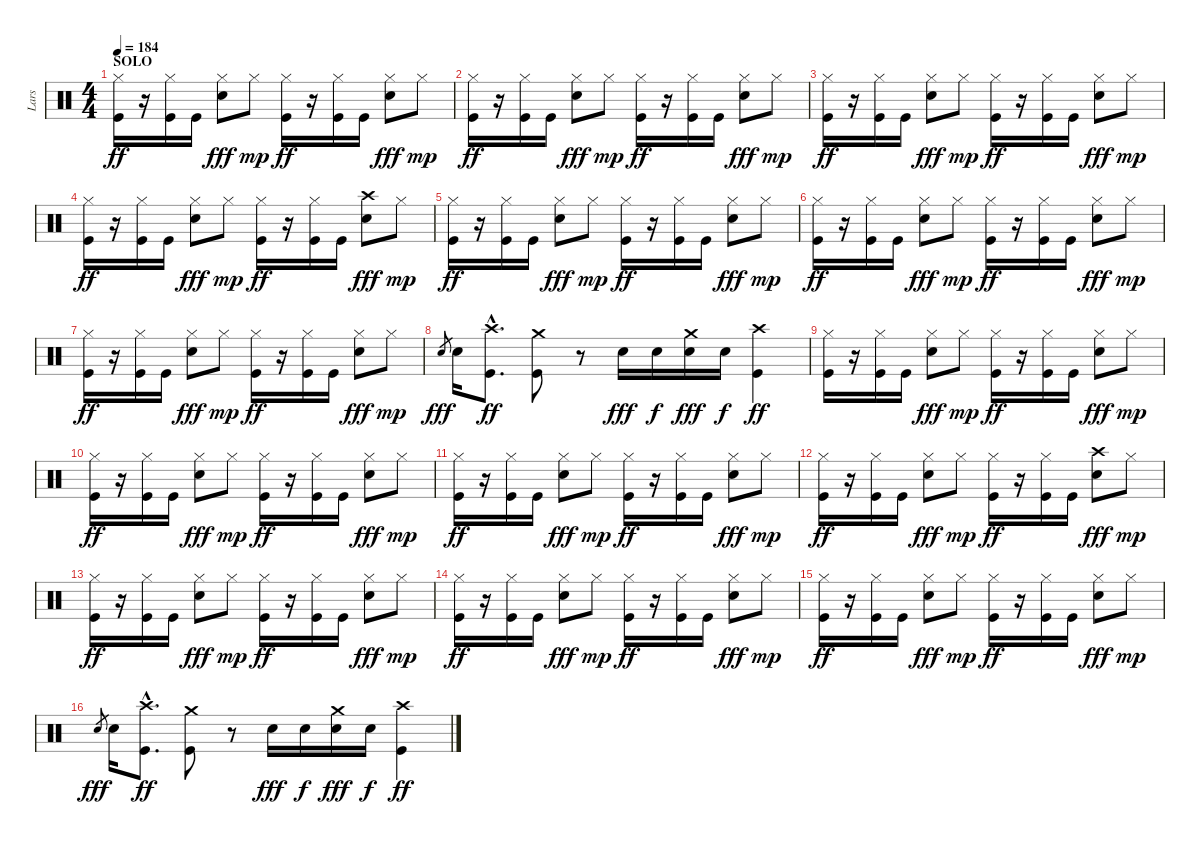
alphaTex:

\track ("Lars" "Lars") {instrument percussion}
\staff {score}
\articulation defaults
\ts (4 4)
\section ("" "SOLO")
\tempo 184
\clef neutral
\ks c
("Hi-Hat (closed)" "Kick (hit)").16{dy ff} r.16 ("Hi-Hat (closed)" "Kick (hit)").16 "Kick (hit)".16 ("Hi-Hat (closed)" "Electric Snare (hit)").8{dy fff} "Hi-Hat (closed)".8{dy mp} ("Hi-Hat (closed)" "Kick (hit)").16{dy ff} r.16 ("Hi-Hat (closed)" "Kick (hit)").16 "Kick (hit)".16 ("Hi-Hat (closed)" "Electric Snare (hit)").8{dy fff} "Hi-Hat (closed)".8{dy mp} |
("Hi-Hat (closed)" "Kick (hit)").16{dy ff} r.16 ("Hi-Hat (closed)" "Kick (hit)").16 "Kick (hit)".16 ("Hi-Hat (closed)" "Electric Snare (hit)").8{dy fff} "Hi-Hat (closed)".8{dy mp} ("Hi-Hat (closed)" "Kick (hit)").16{dy ff} r.16 ("Hi-Hat (closed)" "Kick (hit)").16 "Kick (hit)".16 ("Hi-Hat (closed)" "Electric Snare (hit)").8{dy fff} "Hi-Hat (closed)".8{dy mp} |
("Hi-Hat (closed)" "Kick (hit)").16{dy ff} r.16 ("Hi-Hat (closed)" "Kick (hit)").16 "Kick (hit)".16 ("Hi-Hat (closed)" "Electric Snare (hit)").8{dy fff} "Hi-Hat (closed)".8{dy mp} ("Hi-Hat (closed)" "Kick (hit)").16{dy ff} r.16 ("Hi-Hat (closed)" "Kick (hit)").16 "Kick (hit)".16 ("Hi-Hat (closed)" "Electric Snare (hit)").8{dy fff} "Hi-Hat (closed)".8{dy mp} |
("Hi-Hat (closed)" "Kick (hit)").16{dy ff} r.16 ("Hi-Hat (closed)" "Kick (hit)").16 "Kick (hit)".16 ("Hi-Hat (closed)" "Electric Snare (hit)").8{dy fff} "Hi-Hat (closed)".8{dy mp} ("Hi-Hat (closed)" "Kick (hit)").16{dy ff} r.16 ("Hi-Hat (closed)" "Kick (hit)").16 "Kick (hit)".16 ("Crash high (hit)" "Electric Snare (hit)").8{dy fff} "Hi-Hat (closed)".8{dy mp} |
("Hi-Hat (closed)" "Kick (hit)").16{dy ff} r.16 ("Hi-Hat (closed)" "Kick (hit)").16 "Kick (hit)".16 ("Hi-Hat (closed)" "Electric Snare (hit)").8{dy fff} "Hi-Hat (closed)".8{dy mp} ("Hi-Hat (closed)" "Kick (hit)").16{dy ff} r.16 ("Hi-Hat (closed)" "Kick (hit)").16 "Kick (hit)".16 ("Hi-Hat (closed)" "Electric Snare (hit)").8{dy fff} "Hi-Hat (closed)".8{dy mp} |
("Hi-Hat (closed)" "Kick (hit)").16{dy ff} r.16 ("Hi-Hat (closed)" "Kick (hit)").16 "Kick (hit)".16 ("Hi-Hat (closed)" "Electric Snare (hit)").8{dy fff} "Hi-Hat (closed)".8{dy mp} ("Hi-Hat (closed)" "Kick (hit)").16{dy ff} r.16 ("Hi-Hat (closed)" "Kick (hit)").16 "Kick (hit)".16 ("Hi-Hat (closed)" "Electric Snare (hit)").8{dy fff} "Hi-Hat (closed)".8{dy mp} |
("Hi-Hat (closed)" "Kick (hit)").16{dy ff} r.16 ("Hi-Hat (closed)" "Kick (hit)").16 "Kick (hit)".16 ("Hi-Hat (closed)" "Electric Snare (hit)").8{dy fff} "Hi-Hat (closed)".8{dy mp} ("Hi-Hat (closed)" "Kick (hit)").16{dy ff} r.16 ("Hi-Hat (closed)" "Kick (hit)").16 "Kick (hit)".16 ("Hi-Hat (closed)" "Electric Snare (hit)").8{dy fff} "Hi-Hat (closed)".8{dy mp} |
"Electric Snare (hit)".8{gr dy fff} "Electric Snare (hit)".16 ("Crash high (hit)"{hac} "Kick (hit)"{hac}).8{d dy ff} ("Crash medium (hit)" "Kick (hit)").8 r.8 "Electric Snare (hit)".16{dy fff} "Electric Snare (hit)".16{dy f} ("Crash medium (hit)" "Electric Snare (hit)").16{dy fff} "Electric Snare (hit)".16{dy f} ("Crash high (hit)" "Kick (hit)").4{dy ff} |
("Hi-Hat (closed)" "Kick (hit)").16 r.16 ("Hi-Hat (closed)" "Kick (hit)").16 "Kick (hit)".16 ("Hi-Hat (closed)" "Electric Snare (hit)").8{dy fff} "Hi-Hat (closed)".8{dy mp} ("Hi-Hat (closed)" "Kick (hit)").16{dy ff} r.16 ("Hi-Hat (closed)" "Kick (hit)").16 "Kick (hit)".16 ("Hi-Hat (closed)" "Electric Snare (hit)").8{dy fff} "Hi-Hat (closed)".8{dy mp} |
("Hi-Hat (closed)" "Kick (hit)").16{dy ff} r.16 ("Hi-Hat (closed)" "Kick (hit)").16 "Kick (hit)".16 ("Hi-Hat (closed)" "Electric Snare (hit)").8{dy fff} "Hi-Hat (closed)".8{dy mp} ("Hi-Hat (closed)" "Kick (hit)").16{dy ff} r.16 ("Hi-Hat (closed)" "Kick (hit)").16 "Kick (hit)".16 ("Hi-Hat (closed)" "Electric Snare (hit)").8{dy fff} "Hi-Hat (closed)".8{dy mp} |
("Hi-Hat (closed)" "Kick (hit)").16{dy ff} r.16 ("Hi-Hat (closed)" "Kick (hit)").16 "Kick (hit)".16 ("Hi-Hat (closed)" "Electric Snare (hit)").8{dy fff} "Hi-Hat (closed)".8{dy mp} ("Hi-Hat (closed)" "Kick (hit)").16{dy ff} r.16 ("Hi-Hat (closed)" "Kick (hit)").16 "Kick (hit)".16 ("Hi-Hat (closed)" "Electric Snare (hit)").8{dy fff} "Hi-Hat (closed)".8{dy mp} |
("Hi-Hat (closed)" "Kick (hit)").16{dy ff} r.16 ("Hi-Hat (closed)" "Kick (hit)").16 "Kick (hit)".16 ("Hi-Hat (closed)" "Electric Snare (hit)").8{dy fff} "Hi-Hat (closed)".8{dy mp} ("Hi-Hat (closed)" "Kick (hit)").16{dy ff} r.16 ("Hi-Hat (closed)" "Kick (hit)").16 "Kick (hit)".16 ("Crash high (hit)" "Electric Snare (hit)").8{dy fff} "Hi-Hat (closed)".8{dy mp} |
("Hi-Hat (closed)" "Kick (hit)").16{dy ff} r.16 ("Hi-Hat (closed)" "Kick (hit)").16 "Kick (hit)".16 ("Hi-Hat (closed)" "Electric Snare (hit)").8{dy fff} "Hi-Hat (closed)".8{dy mp} ("Hi-Hat (closed)" "Kick (hit)").16{dy ff} r.16 ("Hi-Hat (closed)" "Kick (hit)").16 "Kick (hit)".16 ("Hi-Hat (closed)" "Electric Snare (hit)").8{dy fff} "Hi-Hat (closed)".8{dy mp} |
("Hi-Hat (closed)" "Kick (hit)").16{dy ff} r.16 ("Hi-Hat (closed)" "Kick (hit)").16 "Kick (hit)".16 ("Hi-Hat (closed)" "Electric Snare (hit)").8{dy fff} "Hi-Hat (closed)".8{dy mp} ("Hi-Hat (closed)" "Kick (hit)").16{dy ff} r.16 ("Hi-Hat (closed)" "Kick (hit)").16 "Kick (hit)".16 ("Hi-Hat (closed)" "Electric Snare (hit)").8{dy fff} "Hi-Hat (closed)".8{dy mp} |
("Hi-Hat (closed)" "Kick (hit)").16{dy ff} r.16 ("Hi-Hat (closed)" "Kick (hit)").16 "Kick (hit)".16 ("Hi-Hat (closed)" "Electric Snare (hit)").8{dy fff} "Hi-Hat (closed)".8{dy mp} ("Hi-Hat (closed)" "Kick (hit)").16{dy ff} r.16 ("Hi-Hat (closed)" "Kick (hit)").16 "Kick (hit)".16 ("Hi-Hat (closed)" "Electric Snare (hit)").8{dy fff} "Hi-Hat (closed)".8{dy mp} |
"Electric Snare (hit)".8{gr dy fff} "Electric Snare (hit)".16 ("Crash high (hit)"{hac} "Kick (hit)"{hac}).8{d dy ff} ("Crash medium (hit)" "Kick (hit)").8 r.8 "Electric Snare (hit)".16{dy fff} "Electric Snare (hit)".16{dy f} ("Crash medium (hit)" "Electric Snare (hit)").16{dy fff} "Electric Snare (hit)".16{dy f} ("Crash high (hit)" "Kick (hit)").4{dy ff}
